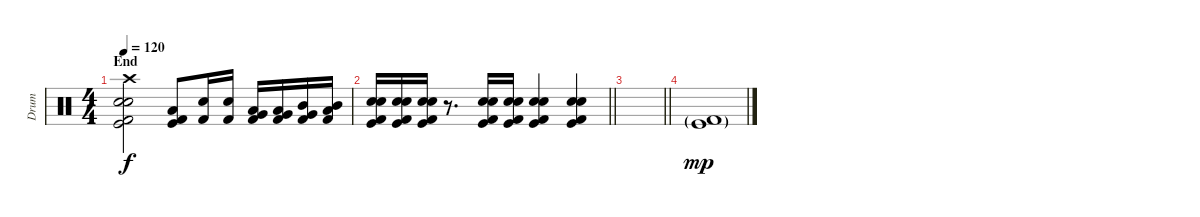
\track ("Drum" "Drum") {instrument percussion}
\staff
\articulation defaults
\ts (4 4)
\section ("" "End")
\tempo 120
\clef neutral
\ks c
("Crash high (hit)" "Snare (hit) 2" "Electric Snare (hit)" "Kick (hit)" "Kick (hit) 2").2{dy f} ("Low Floor Tom (hit)" "Kick (hit) 2" "Kick (hit)").8 ("Electric Snare (hit)" "Kick (hit) 2").16 ("Electric Snare (hit)" "Kick (hit) 2").16 ("Low Floor Tom (hit)" "Very Low Tom (hit)" "Kick (hit) 2").16 ("Low Floor Tom (hit)" "Very Low Tom (hit)" "Kick (hit) 2").16 ("Mid Tom (hit)" "Very Low Tom (hit)" "Kick (hit) 2").16 ("Mid Tom (hit)" "Low Tom (hit)" "Kick (hit) 2").16 |
\barLineRight lightlight
("Snare (hit) 2" "Electric Snare (hit)" "Kick (hit) 2" "Kick (hit)").16 ("Snare (hit) 2" "Electric Snare (hit)" "Kick (hit) 2" "Kick (hit)").16 ("Snare (hit) 2" "Electric Snare (hit)" "Kick (hit) 2" "Kick (hit)").16 r.8{d} ("Snare (hit) 2" "Electric Snare (hit)" "Kick (hit) 2" "Kick (hit)").16 ("Snare (hit) 2" "Electric Snare (hit)" "Kick (hit) 2" "Kick (hit)").16 ("Snare (hit) 2" "Electric Snare (hit)" "Kick (hit) 2" "Kick (hit)").4 ("Snare (hit) 2" "Electric Snare (hit)" "Kick (hit) 2" "Kick (hit)").4 |
\barLineRight lightlight
|
("Kick (hit) 2"{g} "Kick (hit)"{g}).1{dy mp}
